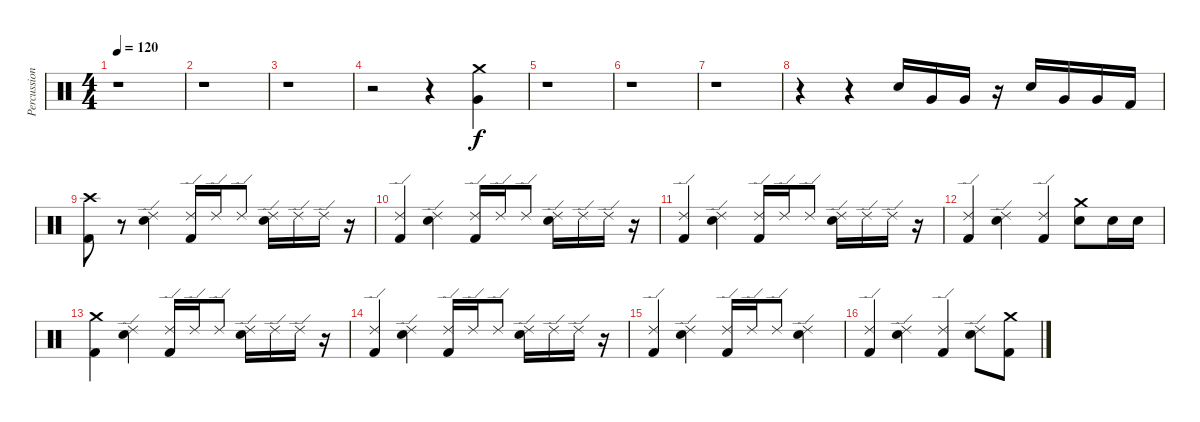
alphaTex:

\track ("Percussion" "Percussion") {instrument percussion}
\staff {score}
\articulation defaults
\ts (4 4)
\tempo 120
\clef neutral
\ks c
r.1{dy f} |
r.1 |
r.1 |
r.2 r.4 ("Crash medium (hit)" "Very Low Tom (hit)").4 |
r.1 |
r.1 |
r.1 |
r.4 r.4 "Electric Snare (hit)".16 "Very Low Tom (hit)".16 "Very Low Tom (hit)".16 r.16 "Electric Snare (hit)".16 "Very Low Tom (hit)".16 "Very Low Tom (hit)".16 "Kick (hit) 2".16 |
("Crash high (hit)" "Kick (hit) 2").8 r.8 ("Ride (edge) 2" "Snare (hit) 2").4 ("Ride (edge) 2" "Kick (hit) 2").16 "Ride (edge) 2".16 "Ride (edge) 2".8 ("Ride (edge) 2" "Snare (hit) 2").16 "Ride (edge) 2".16 "Ride (edge) 2".16 r.16 |
("Ride (edge) 2" "Kick (hit) 2").4 ("Ride (edge) 2" "Snare (hit) 2").4 ("Ride (edge) 2" "Kick (hit) 2").16 "Ride (edge) 2".16 "Ride (edge) 2".8 ("Ride (edge) 2" "Snare (hit) 2").16 "Ride (edge) 2".16 "Ride (edge) 2".16 r.16 |
("Ride (edge) 2" "Kick (hit) 2").4 ("Ride (edge) 2" "Snare (hit) 2").4 ("Ride (edge) 2" "Kick (hit) 2").16 "Ride (edge) 2".16 "Ride (edge) 2".8 ("Ride (edge) 2" "Snare (hit) 2").16 "Ride (edge) 2".16 "Ride (edge) 2".16 r.16 |
("Ride (edge) 2" "Kick (hit) 2").4 ("Ride (edge) 2" "Snare (hit) 2").4 ("Ride (edge) 2" "Kick (hit) 2").4 ("Crash medium (hit)" "Snare (hit) 2").8 "Snare (hit) 2".16 "Snare (hit) 2".16 |
("Crash medium (hit)" "Kick (hit) 2").4 ("Ride (edge) 2" "Snare (hit) 2").4 ("Ride (edge) 2" "Kick (hit) 2").16 "Ride (edge) 2".16 "Ride (edge) 2".8 ("Ride (edge) 2" "Snare (hit) 2").16 "Ride (edge) 2".16 "Ride (edge) 2".16 r.16 |
("Ride (edge) 2" "Kick (hit) 2").4 ("Ride (edge) 2" "Snare (hit) 2").4 ("Ride (edge) 2" "Kick (hit) 2").16 "Ride (edge) 2".16 "Ride (edge) 2".8 ("Ride (edge) 2" "Snare (hit) 2").16 "Ride (edge) 2".16 "Ride (edge) 2".16 r.16 |
("Ride (edge) 2" "Kick (hit) 2").4 ("Ride (edge) 2" "Snare (hit) 2").4 ("Ride (edge) 2" "Kick (hit) 2").16 "Ride (edge) 2".16 "Ride (edge) 2".8 ("Ride (edge) 2" "Snare (hit) 2").4 |
("Ride (edge) 2" "Kick (hit) 2").4 ("Ride (edge) 2" "Snare (hit) 2").4 ("Ride (edge) 2" "Kick (hit) 2").4 ("Ride (edge) 2" "Snare (hit) 2").8 ("Crash medium (hit)" "Kick (hit) 2").8
